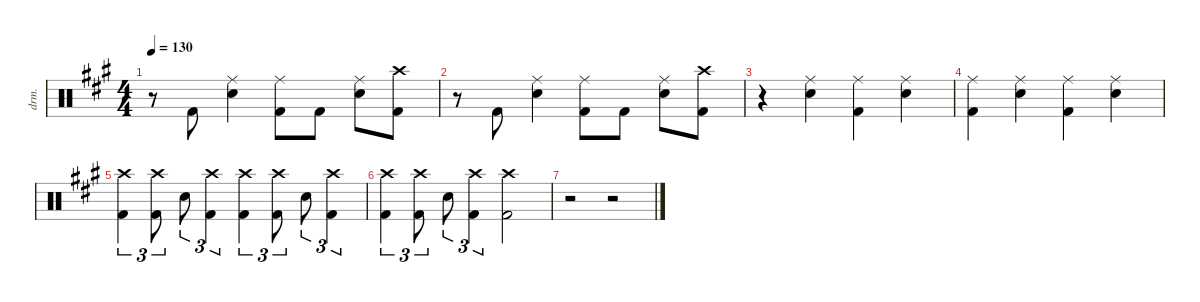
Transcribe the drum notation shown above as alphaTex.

\defaultSystemsLayout 4
\hideDynamics
\bracketExtendMode nobrackets
\track ("Drums" "drm.") {instrument percussion}
\staff {score}
\articulation defaults
\ts (4 4)
\tempo 130
\clef neutral
\ks a
r.8{dy f beam Down} "Kick (hit) 2"{acc forcenatural}.8{beam Up} ("Ride (middle)"{acc forcenatural} "Snare (hit) 2"{acc forcenatural}).4{beam Down} ("Ride (middle)"{acc forcenatural} "Kick (hit) 2"{acc forcenatural}).8{beam Down} "Kick (hit) 2"{acc forcenatural}.8{beam Down} ("Ride (middle)"{acc forcenatural} "Snare (hit) 2"{acc forcenatural}).8{beam Down} ("Crash high (hit)"{acc forcenatural} "Kick (hit) 2"{acc forcenatural}).8{beam Down} |
r.8{beam Down} "Kick (hit) 2"{acc forcenatural}.8{beam Up} ("Ride (middle)"{acc forcenatural} "Snare (hit) 2"{acc forcenatural}).4{beam Down} ("Ride (middle)"{acc forcenatural} "Kick (hit) 2"{acc forcenatural}).8{beam Down} "Kick (hit) 2"{acc forcenatural}.8{beam Down} ("Ride (middle)"{acc forcenatural} "Snare (hit) 2"{acc forcenatural}).8{beam Down} ("Crash high (hit)"{acc forcenatural} "Kick (hit) 2"{acc forcenatural}).8{beam Down} |
r.4{beam Down} ("Ride (middle)"{acc forcenatural} "Snare (hit) 2"{acc forcenatural}).4{beam Down} ("Ride (middle)"{acc forcenatural} "Kick (hit) 2"{acc forcenatural}).4{beam Down} ("Ride (middle)"{acc forcenatural} "Snare (hit) 2"{acc forcenatural}).4{beam Down} |
("Ride (middle)"{acc forcenatural} "Kick (hit) 2"{acc forcenatural}).4{beam Down} ("Ride (middle)"{acc forcenatural} "Snare (hit) 2"{acc forcenatural}).4{beam Down} ("Ride (middle)"{acc forcenatural} "Kick (hit) 2"{acc forcenatural}).4{beam Down} ("Ride (middle)"{acc forcenatural} "Snare (hit) 2"{acc forcenatural}).4{beam Down} |
("Crash high (hit)"{acc forcenatural} "Kick (hit) 2"{acc forcenatural}).4{tu (3 2) beam Down} ("Crash high (hit)"{acc forcenatural} "Kick (hit) 2"{acc forcenatural}).8{tu (3 2) beam Down} "Snare (hit) 2"{acc forcenatural}.8{tu (3 2) beam Down} ("Crash high (hit)"{acc forcenatural} "Kick (hit) 2"{acc forcenatural}).4{tu (3 2) beam Down} ("Crash high (hit)"{acc forcenatural} "Kick (hit) 2"{acc forcenatural}).4{tu (3 2) beam Down} ("Crash high (hit)"{acc forcenatural} "Kick (hit) 2"{acc forcenatural}).8{tu (3 2) beam Down} "Snare (hit) 2"{acc forcenatural}.8{tu (3 2) beam Down} ("Crash high (hit)"{acc forcenatural} "Kick (hit) 2"{acc forcenatural}).4{tu (3 2) beam Down} |
("Crash high (hit)"{acc forcenatural} "Kick (hit) 2"{acc forcenatural}).4{tu (3 2) beam Down} ("Crash high (hit)"{acc forcenatural} "Kick (hit) 2"{acc forcenatural}).8{tu (3 2) beam Down} "Snare (hit) 2"{acc forcenatural}.8{tu (3 2) beam Down} ("Crash high (hit)"{acc forcenatural} "Kick (hit) 2"{acc forcenatural}).4{tu (3 2) beam Down} ("Crash high (hit)"{acc forcenatural} "Kick (hit) 2"{acc forcenatural}).2{beam Down} |
r.2{beam Down} r.2{beam Down}
